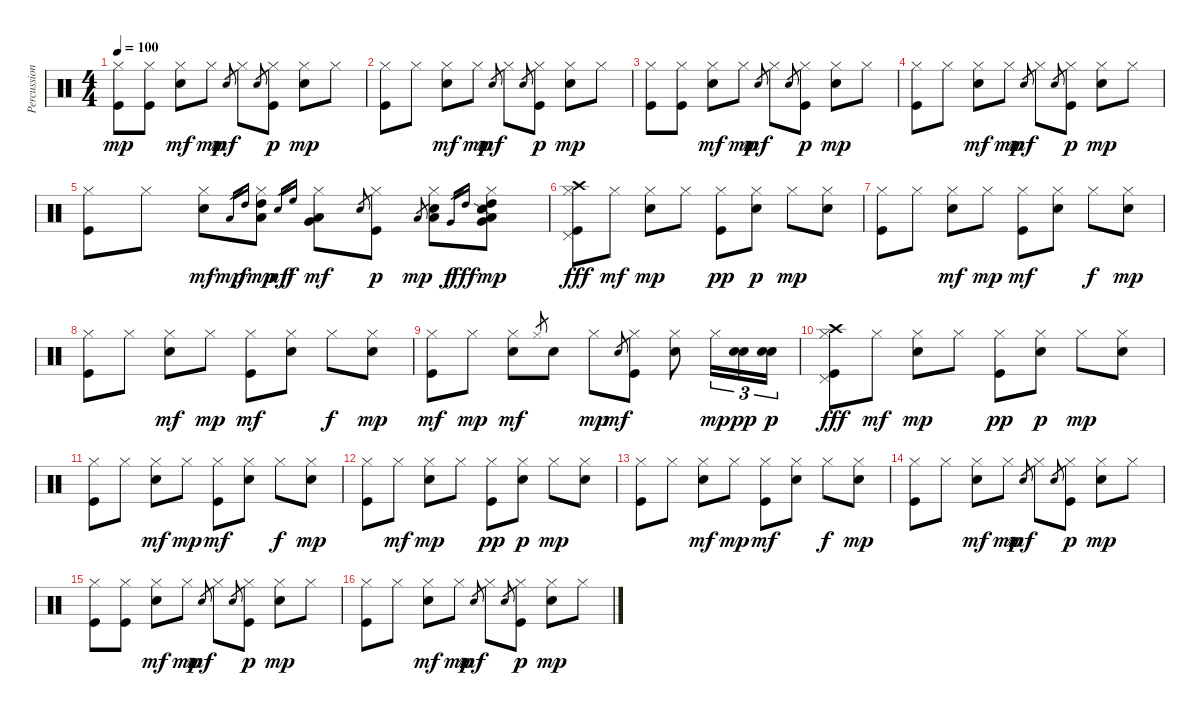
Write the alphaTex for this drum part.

\track ("Percussions" "Percussion") {instrument percussion}
\staff {score}
\articulation defaults
\ts (4 4)
\tempo 100
\clef neutral
\ks c
("Kick (hit)" "Hi-Hat (closed)").8{dy mp} ("Kick (hit)" "Hi-Hat (closed)").8 ("Snare (hit) 2" "Hi-Hat (closed)").8{dy mf} "Hi-Hat (closed)".8{dy mp} "Snare (hit) 2".8{gr dy mf} "Hi-Hat (closed)".8 "Snare (hit) 2".8{gr} ("Kick (hit)" "Hi-Hat (closed)").8{dy p} ("Snare (hit) 2" "Hi-Hat (closed)").8{dy mp} "Hi-Hat (closed)".8 |
("Kick (hit)" "Hi-Hat (closed)").8 "Hi-Hat (closed)".8 ("Snare (hit) 2" "Hi-Hat (closed)").8{dy mf} "Hi-Hat (closed)".8{dy mp} "Snare (hit) 2".8{gr dy mf} "Hi-Hat (closed)".8 "Snare (hit) 2".8{gr} ("Kick (hit)" "Hi-Hat (closed)").8{dy p} ("Snare (hit) 2" "Hi-Hat (closed)").8{dy mp} "Hi-Hat (closed)".8 |
("Kick (hit)" "Hi-Hat (closed)").8 ("Kick (hit)" "Hi-Hat (closed)").8 ("Snare (hit) 2" "Hi-Hat (closed)").8{dy mf} "Hi-Hat (closed)".8{dy mp} "Snare (hit) 2".8{gr dy mf} "Hi-Hat (closed)".8 "Snare (hit) 2".8{gr} ("Kick (hit)" "Hi-Hat (closed)").8{dy p} ("Snare (hit) 2" "Hi-Hat (closed)").8{dy mp} "Hi-Hat (closed)".8 |
("Kick (hit)" "Hi-Hat (closed)").8 "Hi-Hat (closed)".8 ("Snare (hit) 2" "Hi-Hat (closed)").8{dy mf} "Hi-Hat (closed)".8{dy mp} "Snare (hit) 2".8{gr dy mf} "Hi-Hat (closed)".8 "Snare (hit) 2".8{gr} ("Kick (hit)" "Hi-Hat (closed)").8{dy p} ("Snare (hit) 2" "Hi-Hat (closed)").8{dy mp} "Hi-Hat (closed)".8 |
("Kick (hit)" "Hi-Hat (closed)").8 "Hi-Hat (closed)".8 ("Snare (hit) 2" "Hi-Hat (closed)").8{dy mf} "Low Tom (hit)".16{gr dy mp} "High Tom (hit)".16{gr dy f} ("Hi-Hat (closed)" "Low Tom (hit)" "High Tom (hit)").8{dy mp} "Snare (hit) 2".16{gr dy mf} "High Floor Tom (hit)".16{gr dy f} ("Hi-Hat (closed)" "Very Low Tom (hit)" "Low Tom (hit)").8{dy mf} "Snare (hit) 2".8{gr} ("Kick (hit)" "Hi-Hat (closed)").8{dy p} "Low Tom (hit)".8{gr dy mp} ("Snare (hit) 2" "Hi-Hat (closed)" "Low Tom (hit)").8 "Very Low Tom (hit)".16{gr dy f} "High Tom (hit)".16{gr dy fff} ("Snare (side stick) 2" "Very Low Tom (hit)" "Low Floor Tom (hit)" "Hi-Hat (closed)" "High Tom (hit)").8{dy mp} |
("Kick (hit)" "Hi-Hat (closed)" "Pedal Hi-Hat (hit)" "Crash high (hit)").8{dy fff} "Hi-Hat (closed)".8{dy mf} ("Snare (hit) 2" "Hi-Hat (closed)").8{dy mp} "Hi-Hat (closed)".8 ("Kick (hit)" "Hi-Hat (closed)").8{dy pp} ("Snare (hit) 2" "Hi-Hat (closed)").8{dy p} "Hi-Hat (closed)".8{dy mp} ("Snare (hit) 2" "Hi-Hat (closed)").8 |
("Kick (hit)" "Hi-Hat (closed)").8 "Hi-Hat (closed)".8 ("Snare (hit) 2" "Hi-Hat (closed)").8{dy mf} "Hi-Hat (closed)".8{dy mp} ("Kick (hit)" "Hi-Hat (closed)").8{dy mf} ("Snare (hit) 2" "Hi-Hat (closed)").8 "Hi-Hat (closed)".8{dy f} ("Snare (hit) 2" "Hi-Hat (closed)").8{dy mp} |
("Kick (hit)" "Hi-Hat (closed)").8 "Hi-Hat (closed)".8 ("Snare (hit) 2" "Hi-Hat (closed)").8{dy mf} "Hi-Hat (closed)".8{dy mp} ("Kick (hit)" "Hi-Hat (closed)").8{dy mf} ("Snare (hit) 2" "Hi-Hat (closed)").8 "Hi-Hat (closed)".8{dy f} ("Snare (hit) 2" "Hi-Hat (closed)").8{dy mp} |
("Kick (hit)" "Hi-Hat (closed)").8{dy mf} "Hi-Hat (closed)".8{dy mp} ("Snare (hit) 2" "Hi-Hat (closed)").8{dy mf} "Hi-Hat (closed)".8{gr} "Snare (hit) 2".8 "Hi-Hat (closed)".8{dy mp} "Snare (hit) 2".8{gr dy mf} ("Kick (hit)" "Hi-Hat (closed)").8 ("Snare (hit) 2" "Hi-Hat (closed)").8 "Hi-Hat (closed)".16{tu (3 2) dy mp} ("Snare (hit) 2" "Snare (hit) 2").16{tu (3 2) dy pp} ("Snare (hit) 2" "Snare (hit) 2").16{tu (3 2) dy p} |
("Kick (hit)" "Hi-Hat (closed)" "Pedal Hi-Hat (hit)" "Crash high (hit)").8{dy fff} "Hi-Hat (closed)".8{dy mf} ("Snare (hit) 2" "Hi-Hat (closed)").8{dy mp} "Hi-Hat (closed)".8 ("Kick (hit)" "Hi-Hat (closed)").8{dy pp} ("Snare (hit) 2" "Hi-Hat (closed)").8{dy p} "Hi-Hat (closed)".8{dy mp} ("Snare (hit) 2" "Hi-Hat (closed)").8 |
("Kick (hit)" "Hi-Hat (closed)").8 "Hi-Hat (closed)".8 ("Snare (hit) 2" "Hi-Hat (closed)").8{dy mf} "Hi-Hat (closed)".8{dy mp} ("Kick (hit)" "Hi-Hat (closed)").8{dy mf} ("Snare (hit) 2" "Hi-Hat (closed)").8 "Hi-Hat (closed)".8{dy f} ("Snare (hit) 2" "Hi-Hat (closed)").8{dy mp} |
("Kick (hit)" "Hi-Hat (closed)").8 "Hi-Hat (closed)".8{dy mf} ("Snare (hit) 2" "Hi-Hat (closed)").8{dy mp} "Hi-Hat (closed)".8 ("Kick (hit)" "Hi-Hat (closed)").8{dy pp} ("Snare (hit) 2" "Hi-Hat (closed)").8{dy p} "Hi-Hat (closed)".8{dy mp} ("Snare (hit) 2" "Hi-Hat (closed)").8 |
("Kick (hit)" "Hi-Hat (closed)").8 "Hi-Hat (closed)".8 ("Snare (hit) 2" "Hi-Hat (closed)").8{dy mf} "Hi-Hat (closed)".8{dy mp} ("Kick (hit)" "Hi-Hat (closed)").8{dy mf} ("Snare (hit) 2" "Hi-Hat (closed)").8 "Hi-Hat (closed)".8{dy f} ("Snare (hit) 2" "Hi-Hat (closed)").8{dy mp} |
("Kick (hit)" "Hi-Hat (closed)").8 "Hi-Hat (closed)".8 ("Snare (hit) 2" "Hi-Hat (closed)").8{dy mf} "Hi-Hat (closed)".8{dy mp} "Snare (hit) 2".8{gr dy mf} "Hi-Hat (closed)".8 "Snare (hit) 2".8{gr} ("Kick (hit)" "Hi-Hat (closed)").8{dy p} ("Snare (hit) 2" "Hi-Hat (closed)").8{dy mp} "Hi-Hat (closed)".8 |
("Kick (hit)" "Hi-Hat (closed)").8 ("Kick (hit)" "Hi-Hat (closed)").8 ("Snare (hit) 2" "Hi-Hat (closed)").8{dy mf} "Hi-Hat (closed)".8{dy mp} "Snare (hit) 2".8{gr dy mf} "Hi-Hat (closed)".8 "Snare (hit) 2".8{gr} ("Kick (hit)" "Hi-Hat (closed)").8{dy p} ("Snare (hit) 2" "Hi-Hat (closed)").8{dy mp} "Hi-Hat (closed)".8 |
("Kick (hit)" "Hi-Hat (closed)").8 "Hi-Hat (closed)".8 ("Snare (hit) 2" "Hi-Hat (closed)").8{dy mf} "Hi-Hat (closed)".8{dy mp} "Snare (hit) 2".8{gr dy mf} "Hi-Hat (closed)".8 "Snare (hit) 2".8{gr} ("Kick (hit)" "Hi-Hat (closed)").8{dy p} ("Snare (hit) 2" "Hi-Hat (closed)").8{dy mp} "Hi-Hat (closed)".8
